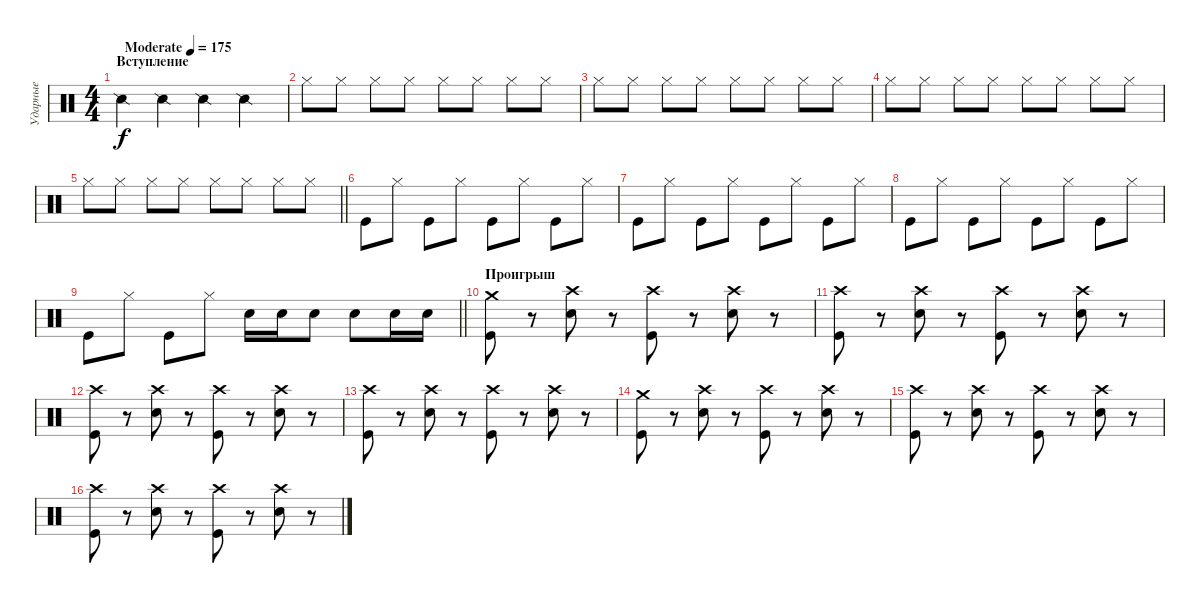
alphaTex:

\track ("Ударные" "Ударные") {instrument percussion}
\staff {score}
\articulation defaults
\ts (4 4)
\section ("" "Вступление")
\tempo (175 "Moderate")
\clef neutral
\ks c "Snare (side stick) 2".4{dy f} "Snare (side stick) 2".4 "Snare (side stick) 2".4 "Snare (side stick) 2".4
|
"Hi-Hat (closed)".8 "Hi-Hat (closed)".8 "Hi-Hat (closed)".8 "Hi-Hat (closed)".8 "Hi-Hat (closed)".8 "Hi-Hat (closed)".8 "Hi-Hat (closed)".8 "Hi-Hat (closed)".8 |
"Hi-Hat (closed)".8 "Hi-Hat (closed)".8 "Hi-Hat (closed)".8 "Hi-Hat (closed)".8 "Hi-Hat (closed)".8 "Hi-Hat (closed)".8 "Hi-Hat (closed)".8 "Hi-Hat (closed)".8 |
"Hi-Hat (closed)".8 "Hi-Hat (closed)".8 "Hi-Hat (closed)".8 "Hi-Hat (closed)".8 "Hi-Hat (closed)".8 "Hi-Hat (closed)".8 "Hi-Hat (closed)".8 "Hi-Hat (closed)".8 |
\barLineRight lightlight "Hi-Hat (closed)".8 "Hi-Hat (closed)".8 "Hi-Hat (closed)".8 "Hi-Hat (closed)".8 "Hi-Hat (closed)".8 "Hi-Hat (closed)".8 "Hi-Hat (closed)".8 "Hi-Hat (closed)".8
|
\section ("" " ")
"Kick (hit)".8 "Hi-Hat (closed)".8 "Kick (hit)".8 "Hi-Hat (closed)".8 "Kick (hit)".8 "Hi-Hat (closed)".8 "Kick (hit)".8 "Hi-Hat (closed)".8 |
"Kick (hit)".8 "Hi-Hat (closed)".8 "Kick (hit)".8 "Hi-Hat (closed)".8 "Kick (hit)".8 "Hi-Hat (closed)".8 "Kick (hit)".8 "Hi-Hat (closed)".8 |
"Kick (hit)".8 "Hi-Hat (closed)".8 "Kick (hit)".8 "Hi-Hat (closed)".8 "Kick (hit)".8 "Hi-Hat (closed)".8 "Kick (hit)".8 "Hi-Hat (closed)".8 |
\barLineRight lightlight "Kick (hit)".8 "Hi-Hat (closed)".8 "Kick (hit)".8 "Hi-Hat (closed)".8 "Electric Snare (hit)".16 "Electric Snare (hit)".16 "Electric Snare (hit)".8 "Electric Snare (hit)".8 "Electric Snare (hit)".16 "Electric Snare (hit)".16
|
\section ("" "Проигрыш")
("Crash medium (hit)" "Kick (hit)").8 r.8 ("Crash high (hit)" "Electric Snare (hit)").8 r.8 ("Crash high (hit)" "Kick (hit)").8 r.8 ("Crash high (hit)" "Electric Snare (hit)").8 r.8 |
("Crash high (hit)" "Kick (hit)").8 r.8 ("Crash high (hit)" "Electric Snare (hit)").8 r.8 ("Crash high (hit)" "Kick (hit)").8 r.8 ("Crash high (hit)" "Electric Snare (hit)").8 r.8 |
("Crash high (hit)" "Kick (hit)").8 r.8 ("Crash high (hit)" "Electric Snare (hit)").8 r.8 ("Crash high (hit)" "Kick (hit)").8 r.8 ("Crash high (hit)" "Electric Snare (hit)").8 r.8 |
("Crash high (hit)" "Kick (hit)").8 r.8 ("Crash high (hit)" "Electric Snare (hit)").8 r.8 ("Crash high (hit)" "Kick (hit)").8 r.8 ("Crash high (hit)" "Electric Snare (hit)").8 r.8 |
("Crash medium (hit)" "Kick (hit)").8 r.8 ("Crash high (hit)" "Electric Snare (hit)").8 r.8 ("Crash high (hit)" "Kick (hit)").8 r.8 ("Crash high (hit)" "Electric Snare (hit)").8 r.8 |
("Crash high (hit)" "Kick (hit)").8 r.8 ("Crash high (hit)" "Electric Snare (hit)").8 r.8 ("Crash high (hit)" "Kick (hit)").8 r.8 ("Crash high (hit)" "Electric Snare (hit)").8 r.8 |
("Crash high (hit)" "Kick (hit)").8 r.8 ("Crash high (hit)" "Electric Snare (hit)").8 r.8 ("Crash high (hit)" "Kick (hit)").8 r.8 ("Crash high (hit)" "Electric Snare (hit)").8 r.8
